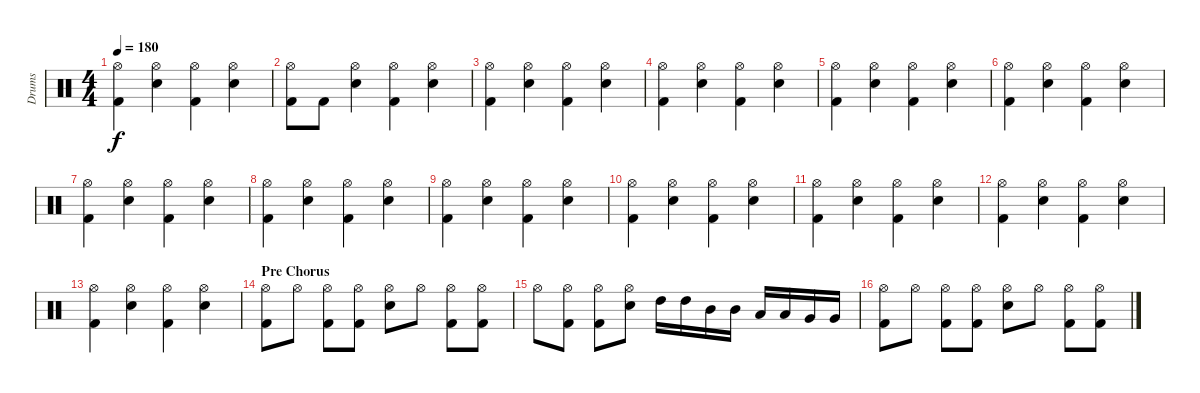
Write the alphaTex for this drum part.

\track ("Drums" "Drums") {instrument percussion}
\staff {score}
\articulation defaults
\ts (4 4)
\tempo 180
\clef neutral
\ks c
("Hi-Hat (open)" "Kick (hit) 2").4{dy f} ("Hi-Hat (open)" "Electric Snare (hit)").4 ("Hi-Hat (open)" "Kick (hit) 2").4 ("Hi-Hat (open)" "Electric Snare (hit)").4 |
("Hi-Hat (open)" "Kick (hit) 2").8 "Kick (hit) 2".8 ("Hi-Hat (open)" "Electric Snare (hit)").4 ("Hi-Hat (open)" "Kick (hit) 2").4 ("Hi-Hat (open)" "Electric Snare (hit)").4 |
("Hi-Hat (open)" "Kick (hit) 2").4 ("Hi-Hat (open)" "Electric Snare (hit)").4 ("Hi-Hat (open)" "Kick (hit) 2").4 ("Hi-Hat (open)" "Electric Snare (hit)").4 |
("Hi-Hat (open)" "Kick (hit) 2").4 ("Hi-Hat (open)" "Electric Snare (hit)").4 ("Hi-Hat (open)" "Kick (hit) 2").4 ("Hi-Hat (open)" "Electric Snare (hit)").4 |
("Hi-Hat (open)" "Kick (hit) 2").4 ("Hi-Hat (open)" "Electric Snare (hit)").4 ("Hi-Hat (open)" "Kick (hit) 2").4 ("Hi-Hat (open)" "Electric Snare (hit)").4 |
("Hi-Hat (open)" "Kick (hit) 2").4 ("Hi-Hat (open)" "Electric Snare (hit)").4 ("Hi-Hat (open)" "Kick (hit) 2").4 ("Hi-Hat (open)" "Electric Snare (hit)").4 |
("Hi-Hat (open)" "Kick (hit) 2").4 ("Hi-Hat (open)" "Electric Snare (hit)").4 ("Hi-Hat (open)" "Kick (hit) 2").4 ("Hi-Hat (open)" "Electric Snare (hit)").4 |
("Hi-Hat (open)" "Kick (hit) 2").4 ("Hi-Hat (open)" "Electric Snare (hit)").4 ("Hi-Hat (open)" "Kick (hit) 2").4 ("Hi-Hat (open)" "Electric Snare (hit)").4 |
("Hi-Hat (open)" "Kick (hit) 2").4 ("Hi-Hat (open)" "Electric Snare (hit)").4 ("Hi-Hat (open)" "Kick (hit) 2").4 ("Hi-Hat (open)" "Electric Snare (hit)").4 |
("Hi-Hat (open)" "Kick (hit) 2").4 ("Hi-Hat (open)" "Electric Snare (hit)").4 ("Hi-Hat (open)" "Kick (hit) 2").4 ("Hi-Hat (open)" "Electric Snare (hit)").4 |
("Hi-Hat (open)" "Kick (hit) 2").4 ("Hi-Hat (open)" "Electric Snare (hit)").4 ("Hi-Hat (open)" "Kick (hit) 2").4 ("Hi-Hat (open)" "Electric Snare (hit)").4 |
("Hi-Hat (open)" "Kick (hit) 2").4 ("Hi-Hat (open)" "Electric Snare (hit)").4 ("Hi-Hat (open)" "Kick (hit) 2").4 ("Hi-Hat (open)" "Electric Snare (hit)").4 |
("Hi-Hat (open)" "Kick (hit) 2").4 ("Hi-Hat (open)" "Electric Snare (hit)").4 ("Hi-Hat (open)" "Kick (hit) 2").4 ("Hi-Hat (open)" "Electric Snare (hit)").4 |
\section ("" "Pre Chorus")
("Hi-Hat (open)" "Kick (hit) 2").8 "Hi-Hat (open)".8 ("Hi-Hat (open)" "Kick (hit) 2").8 ("Hi-Hat (open)" "Kick (hit) 2").8 ("Hi-Hat (open)" "Electric Snare (hit)").8 "Hi-Hat (open)".8 ("Hi-Hat (open)" "Kick (hit) 2").8 ("Hi-Hat (open)" "Kick (hit) 2").8 |
"Hi-Hat (open)".8 ("Hi-Hat (open)" "Kick (hit) 2").8 ("Hi-Hat (open)" "Kick (hit) 2").8 ("Hi-Hat (open)" "Electric Snare (hit)").8 "High Tom (hit)".16 "High Tom (hit)".16 "Mid Tom (hit)".16 "Mid Tom (hit)".16 "Low Tom (hit)".16 "Low Tom (hit)".16 "Very Low Tom (hit)".16 "Very Low Tom (hit)".16 |
("Hi-Hat (open)" "Kick (hit) 2").8 "Hi-Hat (open)".8 ("Hi-Hat (open)" "Kick (hit) 2").8 ("Hi-Hat (open)" "Kick (hit) 2").8 ("Hi-Hat (open)" "Electric Snare (hit)").8 "Hi-Hat (open)".8 ("Hi-Hat (open)" "Kick (hit) 2").8 ("Hi-Hat (open)" "Kick (hit) 2").8
